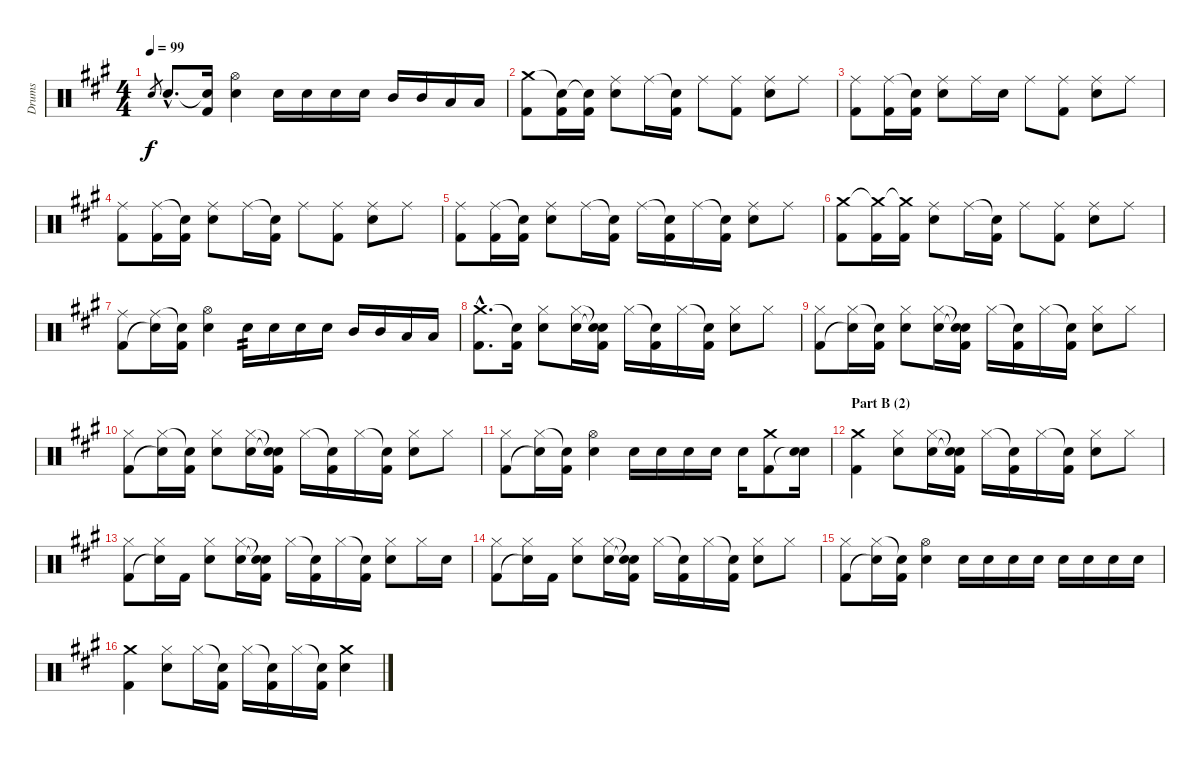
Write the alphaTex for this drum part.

\track ("Drums" "Drums") {instrument percussion}
\staff {score}
\articulation defaults
\ts (4 4)
\tempo 99
\clef neutral
\ks a "Electric Snare (hit)".8{gr dy f} "Electric Snare (hit)"{hac}.8{d}
("Snare (hit)"{t} "Kick (hit) 2").16 ("Hi-Hat (open)" "Electric Snare (hit)").4 "Electric Snare (hit)".16 "Electric Snare (hit)".16 "Electric Snare (hit)".16 "Electric Snare (hit)".16 "Mid Tom (hit)".16 "Mid Tom (hit)".16 "Low Tom (hit)".16 "Low Floor Tom (hit)".16 |
("Crash medium (hit)" "Kick (hit) 2").8 ("Snare (hit)"{t} "Kick (hit) 2").16 ("Snare (hit)"{t} "Kick (hit) 2").16 ("Ride (middle)" "Electric Snare (hit)").8 "Ride (middle)".16 ("Snare (hit)"{t} "Kick (hit) 2").16 "Ride (middle)".8 ("Ride (middle)" "Kick (hit) 2").8 ("Ride (middle)" "Electric Snare (hit)").8 "Ride (middle)".8 |
("Ride (middle)" "Kick (hit) 2").8 ("Ride (middle)" "Kick (hit) 2").16 ("Snare (hit)"{t} "Kick (hit) 2").16 ("Ride (middle)" "Electric Snare (hit)").8 "Ride (middle)".16 "Electric Snare (hit)".16 "Ride (middle)".8 ("Ride (middle)" "Kick (hit) 2").8 ("Ride (middle)" "Electric Snare (hit)").8 "Ride (middle)".8 |
("Ride (middle)" "Kick (hit) 2").8 ("Ride (middle)" "Kick (hit) 2").16 ("Snare (hit)"{t} "Kick (hit) 2").16 ("Ride (middle)" "Electric Snare (hit)").8 "Ride (middle)".16 ("Snare (hit)"{t} "Kick (hit) 2").16 "Ride (middle)".8 ("Ride (middle)" "Kick (hit) 2").8 ("Ride (middle)" "Electric Snare (hit)").8 "Ride (middle)".8 |
("Ride (middle)" "Kick (hit) 2").8 ("Ride (middle)" "Kick (hit) 2").16 ("Snare (hit)"{t} "Kick (hit) 2").16 ("Ride (middle)" "Electric Snare (hit)").8 "Ride (middle)".16 ("Snare (hit)"{t} "Kick (hit) 2").16 "Ride (middle)".16 ("Snare (hit)"{t} "Kick (hit) 2").16 "Ride (middle)".16 ("Snare (hit)"{t} "Kick (hit) 2").16 ("Ride (middle)" "Electric Snare (hit)").8 "Ride (middle)".8 |
("Crash medium (hit)" "Kick (hit) 2").8 ("Crash medium (hit)"{t} "Kick (hit) 2").16 ("Crash medium (hit)"{t} "Kick (hit) 2").16 ("Ride (middle)" "Electric Snare (hit)").8 "Ride (middle)".16 ("Snare (hit)"{t} "Kick (hit) 2").16 "Ride (middle)".8 ("Ride (middle)" "Kick (hit) 2").8 ("Ride (middle)" "Electric Snare (hit)").8 "Ride (middle)".8 |
("Ride (middle)" "Kick (hit) 2").8 ("Ride (middle)" "Snare (hit)"{t}).16 ("Snare (hit)"{t} "Kick (hit) 2").16 ("Hi-Hat (open)" "Electric Snare (hit)").4 "Electric Snare (hit)".16{tp 2} "Electric Snare (hit)".16 "Electric Snare (hit)".16 "Electric Snare (hit)".16 "Mid Tom (hit)".16 "Mid Tom (hit)".16 "Low Tom (hit)".16 "Low Floor Tom (hit)".16 |
("Crash medium (hit)"{hac} "Kick (hit) 2"{hac}).8{d} ("Snare (hit)"{t} "Kick (hit) 2").16 ("Hi-Hat (closed)" "Electric Snare (hit)").8 ("Hi-Hat (closed)" "Electric Snare (hit)").16 ("Snare (hit)"{t} "Snare (hit)"{t} "Kick (hit) 2").16 "Hi-Hat (closed)".16 ("Snare (hit)"{t} "Kick (hit) 2").16 "Hi-Hat (closed)".16 ("Snare (hit)"{t} "Kick (hit) 2").16 ("Hi-Hat (closed)" "Electric Snare (hit)").8 "Hi-Hat (closed)".8 |
("Hi-Hat (closed)" "Kick (hit) 2").8 ("Hi-Hat (closed)" "Snare (hit)"{t}).16 ("Snare (hit)"{t} "Kick (hit) 2").16 ("Hi-Hat (closed)" "Electric Snare (hit)").8 ("Hi-Hat (closed)" "Electric Snare (hit)").16 ("Snare (hit)"{t} "Snare (hit)"{t} "Kick (hit) 2").16 "Hi-Hat (closed)".16 ("Snare (hit)"{t} "Kick (hit) 2").16 "Hi-Hat (closed)".16 ("Snare (hit)"{t} "Kick (hit) 2").16 ("Hi-Hat (closed)" "Electric Snare (hit)").8 "Hi-Hat (closed)".8 |
("Hi-Hat (closed)" "Kick (hit) 2").8 ("Hi-Hat (closed)" "Snare (hit)"{t}).16 ("Snare (hit)"{t} "Kick (hit) 2").16 ("Hi-Hat (closed)" "Electric Snare (hit)").8 ("Hi-Hat (closed)" "Electric Snare (hit)").16 ("Snare (hit)"{t} "Snare (hit)"{t} "Kick (hit) 2").16 "Hi-Hat (closed)".16 ("Snare (hit)"{t} "Kick (hit) 2").16 "Hi-Hat (closed)".16 ("Snare (hit)"{t} "Kick (hit) 2").16 ("Hi-Hat (closed)" "Electric Snare (hit)").8 "Hi-Hat (closed)".8 |
("Hi-Hat (closed)" "Kick (hit) 2").8 ("Hi-Hat (closed)" "Snare (hit)"{t}).16 ("Snare (hit)"{t} "Kick (hit) 2").16 ("Hi-Hat (open)" "Electric Snare (hit)").4 "Electric Snare (hit)".16 "Electric Snare (hit)".16 "Electric Snare (hit)".16 "Electric Snare (hit)".16 "Electric Snare (hit)".16 ("Crash medium (hit)" "Kick (hit) 2").8 ("Electric Snare (hit)" "Snare (hit)"{t}).16 |
\section ("" "Part B (2)")
("Crash medium (hit)" "Kick (hit) 2").4 ("Hi-Hat (closed)" "Electric Snare (hit)").8 ("Hi-Hat (closed)" "Electric Snare (hit)").16 ("Snare (hit)"{t} "Snare (hit)"{t} "Kick (hit) 2").16 "Hi-Hat (closed)".16 ("Snare (hit)"{t} "Kick (hit) 2").16 "Hi-Hat (closed)".16 ("Snare (hit)"{t} "Kick (hit) 2").16 ("Hi-Hat (closed)" "Electric Snare (hit)").8 "Hi-Hat (closed)".8 |
("Hi-Hat (closed)" "Kick (hit) 2").8 ("Hi-Hat (closed)" "Snare (hit)"{t}).16 "Kick (hit) 2".16 ("Hi-Hat (closed)" "Electric Snare (hit)").8 ("Hi-Hat (closed)" "Electric Snare (hit)").16 ("Snare (hit)"{t} "Snare (hit)"{t} "Kick (hit) 2").16 "Hi-Hat (closed)".16 ("Snare (hit)"{t} "Kick (hit) 2").16 "Hi-Hat (closed)".16 ("Snare (hit)"{t} "Kick (hit) 2").16 ("Hi-Hat (closed)" "Electric Snare (hit)").8 "Hi-Hat (closed)".16 "Electric Snare (hit)".16 |
("Hi-Hat (closed)" "Kick (hit) 2").8 ("Hi-Hat (closed)" "Snare (hit)"{t}).16 "Kick (hit) 2".16 ("Hi-Hat (closed)" "Electric Snare (hit)").8 ("Hi-Hat (closed)" "Electric Snare (hit)").16 ("Snare (hit)"{t} "Snare (hit)"{t} "Kick (hit) 2").16 "Hi-Hat (closed)".16 ("Snare (hit)"{t} "Kick (hit) 2").16 "Hi-Hat (closed)".16 ("Snare (hit)"{t} "Kick (hit) 2").16 ("Hi-Hat (closed)" "Electric Snare (hit)").8 "Hi-Hat (closed)".8 |
("Hi-Hat (closed)" "Kick (hit) 2").8 ("Hi-Hat (closed)" "Snare (hit)"{t}).16 ("Snare (hit)"{t} "Kick (hit) 2").16 ("Hi-Hat (open)" "Electric Snare (hit)").4 "Electric Snare (hit)".16 "Electric Snare (hit)".16 "Electric Snare (hit)".16 "Electric Snare (hit)".16 "Electric Snare (hit)".16 "Electric Snare (hit)".16 "Electric Snare (hit)".16 "Electric Snare (hit)".16 |
("Crash medium (hit)" "Kick (hit) 2").4 ("Hi-Hat (closed)" "Electric Snare (hit)").8 "Hi-Hat (closed)".16 ("Snare (hit)"{t} "Kick (hit) 2").16 "Hi-Hat (closed)".16 ("Snare (hit)"{t} "Kick (hit) 2").16 "Hi-Hat (closed)".16 ("Snare (hit)"{t} "Kick (hit) 2").16 ("Crash medium (hit)" "Electric Snare (hit)").4
